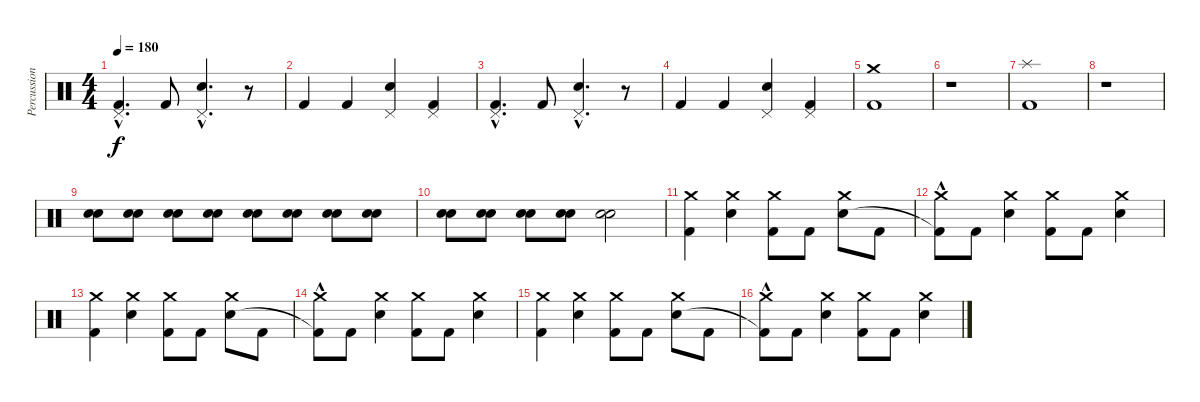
\track ("Percussion" "Percussion") {instrument percussion}
\staff {score}
\articulation defaults
\ts (4 4)
\tempo 180
\clef neutral
\ks c
("Pedal Hi-Hat (hit)"{hac} "Kick (hit) 2"{hac}).4{d dy f} "Kick (hit) 2".8 ("Pedal Hi-Hat (hit)"{hac} "Electric Snare (hit)"{hac}).4{d} r.8 |
"Kick (hit) 2".4 "Kick (hit) 2".4 ("Pedal Hi-Hat (hit)" "Electric Snare (hit)").4 ("Pedal Hi-Hat (hit)" "Kick (hit) 2").4 |
("Pedal Hi-Hat (hit)"{hac} "Kick (hit) 2"{hac}).4{d} "Kick (hit) 2".8 ("Pedal Hi-Hat (hit)"{hac} "Electric Snare (hit)"{hac}).4{d} r.8 |
"Kick (hit) 2".4 "Kick (hit) 2".4 ("Pedal Hi-Hat (hit)" "Electric Snare (hit)").4 ("Pedal Hi-Hat (hit)" "Kick (hit) 2").4 |
("Crash medium (hit)" "Kick (hit) 2").1 |
r.1 |
("Splash (hit)" "Kick (hit) 2").1 |
r.1 |
("Electric Snare (hit)" "Electric Snare (hit)").8 ("Electric Snare (hit)" "Electric Snare (hit)").8 ("Electric Snare (hit)" "Electric Snare (hit)").8 ("Electric Snare (hit)" "Electric Snare (hit)").8 ("Electric Snare (hit)" "Electric Snare (hit)").8 ("Electric Snare (hit)" "Electric Snare (hit)").8 ("Electric Snare (hit)" "Electric Snare (hit)").8 ("Electric Snare (hit)" "Electric Snare (hit)").8 |
("Electric Snare (hit)" "Electric Snare (hit)").8 ("Electric Snare (hit)" "Electric Snare (hit)").8 ("Electric Snare (hit)" "Electric Snare (hit)").8 ("Electric Snare (hit)" "Electric Snare (hit)").8 ("Electric Snare (hit)" "Electric Snare (hit)").2 |
("Crash medium (hit)" "Kick (hit) 2").4 ("Crash medium (hit)" "Electric Snare (hit)").4 ("Crash medium (hit)" "Kick (hit) 2").8 "Kick (hit) 2".8 ("Crash medium (hit)" "Electric Snare (hit)").8 "Kick (hit) 2".8 |
("Crash medium (hit)" "Kick (hit) 2"{hac t}).8 "Kick (hit) 2".8 ("Crash medium (hit)" "Electric Snare (hit)").4 ("Crash medium (hit)" "Kick (hit) 2").8 "Kick (hit) 2".8 ("Crash medium (hit)" "Electric Snare (hit)").4 |
("Crash medium (hit)" "Kick (hit) 2").4 ("Crash medium (hit)" "Electric Snare (hit)").4 ("Crash medium (hit)" "Kick (hit) 2").8 "Kick (hit) 2".8 ("Crash medium (hit)" "Electric Snare (hit)").8 "Kick (hit) 2".8 |
("Crash medium (hit)" "Kick (hit) 2"{hac t}).8 "Kick (hit) 2".8 ("Crash medium (hit)" "Electric Snare (hit)").4 ("Crash medium (hit)" "Kick (hit) 2").8 "Kick (hit) 2".8 ("Crash medium (hit)" "Electric Snare (hit)").4 |
("Crash medium (hit)" "Kick (hit) 2").4 ("Crash medium (hit)" "Electric Snare (hit)").4 ("Crash medium (hit)" "Kick (hit) 2").8 "Kick (hit) 2".8 ("Crash medium (hit)" "Electric Snare (hit)").8 "Kick (hit) 2".8 |
("Crash medium (hit)" "Kick (hit) 2"{hac t}).8 "Kick (hit) 2".8 ("Crash medium (hit)" "Electric Snare (hit)").4 ("Crash medium (hit)" "Kick (hit) 2").8 "Kick (hit) 2".8 ("Crash medium (hit)" "Electric Snare (hit)").4
